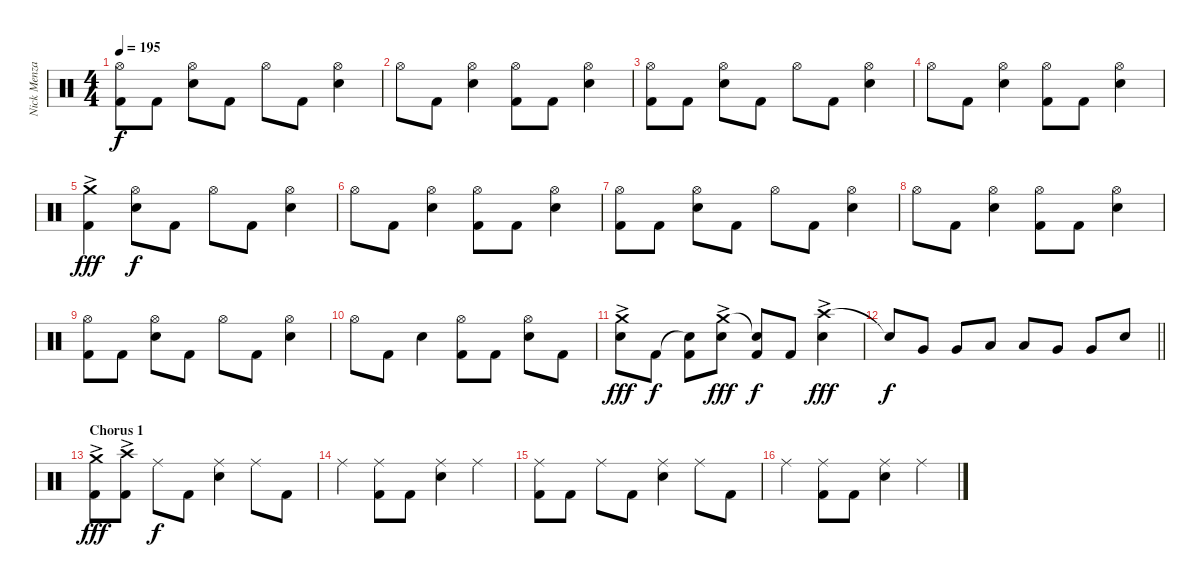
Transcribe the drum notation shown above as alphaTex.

\track ("Nick Menza" "Nick Menza") {instrument percussion}
\staff {score}
\articulation defaults
\ts (4 4)
\tempo 195
\clef neutral
\ks c
("Hi-Hat (open)" "Kick (hit) 2").8{dy f} "Kick (hit) 2".8 ("Hi-Hat (open)" "Snare (hit) 2").8 "Kick (hit) 2".8 "Hi-Hat (open)".8 "Kick (hit) 2".8 ("Hi-Hat (open)" "Snare (hit) 2").4 |
"Hi-Hat (open)".8 "Kick (hit) 2".8 ("Hi-Hat (open)" "Snare (hit) 2").4 ("Hi-Hat (open)" "Kick (hit) 2").8 "Kick (hit) 2".8 ("Hi-Hat (open)" "Snare (hit) 2").4 |
("Hi-Hat (open)" "Kick (hit) 2").8 "Kick (hit) 2".8 ("Hi-Hat (open)" "Snare (hit) 2").8 "Kick (hit) 2".8 "Hi-Hat (open)".8 "Kick (hit) 2".8 ("Hi-Hat (open)" "Snare (hit) 2").4 |
"Hi-Hat (open)".8 "Kick (hit) 2".8 ("Hi-Hat (open)" "Snare (hit) 2").4 ("Hi-Hat (open)" "Kick (hit) 2").8 "Kick (hit) 2".8 ("Hi-Hat (open)" "Snare (hit) 2").4 |
("Crash medium (hit)"{ac} "Kick (hit) 2").4{dy fff} ("Hi-Hat (open)" "Snare (hit) 2").8{dy f} "Kick (hit) 2".8 "Hi-Hat (open)".8 "Kick (hit) 2".8 ("Hi-Hat (open)" "Snare (hit) 2").4 |
"Hi-Hat (open)".8 "Kick (hit) 2".8 ("Hi-Hat (open)" "Snare (hit) 2").4 ("Hi-Hat (open)" "Kick (hit) 2").8 "Kick (hit) 2".8 ("Hi-Hat (open)" "Snare (hit) 2").4 |
("Hi-Hat (open)" "Kick (hit) 2").8 "Kick (hit) 2".8 ("Hi-Hat (open)" "Snare (hit) 2").8 "Kick (hit) 2".8 "Hi-Hat (open)".8 "Kick (hit) 2".8 ("Hi-Hat (open)" "Snare (hit) 2").4 |
"Hi-Hat (open)".8 "Kick (hit) 2".8 ("Hi-Hat (open)" "Snare (hit) 2").4 ("Hi-Hat (open)" "Kick (hit) 2").8 "Kick (hit) 2".8 ("Hi-Hat (open)" "Snare (hit) 2").4 |
("Hi-Hat (open)" "Kick (hit) 2").8 "Kick (hit) 2".8 ("Hi-Hat (open)" "Snare (hit) 2").8 "Kick (hit) 2".8 "Hi-Hat (open)".8 "Kick (hit) 2".8 ("Hi-Hat (open)" "Snare (hit) 2").4 |
"Hi-Hat (open)".8 "Kick (hit) 2".8 "Snare (hit) 2".4 ("Hi-Hat (open)" "Kick (hit) 2").8 "Kick (hit) 2".8 ("Hi-Hat (open)" "Snare (hit) 2").8 "Kick (hit) 2".8 |
("Crash medium (hit)"{ac} "Snare (hit) 2").8{dy fff} "Kick (hit) 2".8{dy f} ("Snare (hit)"{t} "Kick (hit) 2").8 ("Crash medium (hit)"{ac} "Snare (hit) 2").8{dy fff} ("Snare (hit)"{t} "Kick (hit) 2").8{dy f} "Kick (hit) 2".8 ("Crash high (hit)"{ac} "Snare (hit) 2").4{dy fff} |
\barLineRight lightlight "Snare (hit)"{t}.8{dy f} "Very Low Tom (hit)".8 "Very Low Tom (hit)".8 "Low Tom (hit)".8 "Low Tom (hit)".8 "Very Low Tom (hit)".8 "Very Low Tom (hit)".8 "Snare (hit) 2".8
|
\section ("" "Chorus 1")
("Crash medium (hit)"{ac} "Kick (hit) 2").8{dy fff} ("Crash high (hit)"{ac} "Kick (hit) 2").8 "Ride (middle)".8{dy f} "Kick (hit) 2".8 ("Ride (middle)" "Snare (hit) 2").4 "Ride (middle)".8 "Kick (hit) 2".8 |
"Ride (middle)".4 ("Ride (middle)" "Kick (hit) 2").8 "Kick (hit) 2".8 ("Ride (middle)" "Snare (hit) 2").4 "Ride (middle)".4 |
("Ride (middle)" "Kick (hit) 2").8 "Kick (hit) 2".8 "Ride (middle)".8 "Kick (hit) 2".8 ("Ride (middle)" "Snare (hit) 2").4 "Ride (middle)".8 "Kick (hit) 2".8 |
"Ride (middle)".4 ("Ride (middle)" "Kick (hit) 2").8 "Kick (hit) 2".8 ("Ride (middle)" "Snare (hit) 2").4 "Ride (middle)".4
